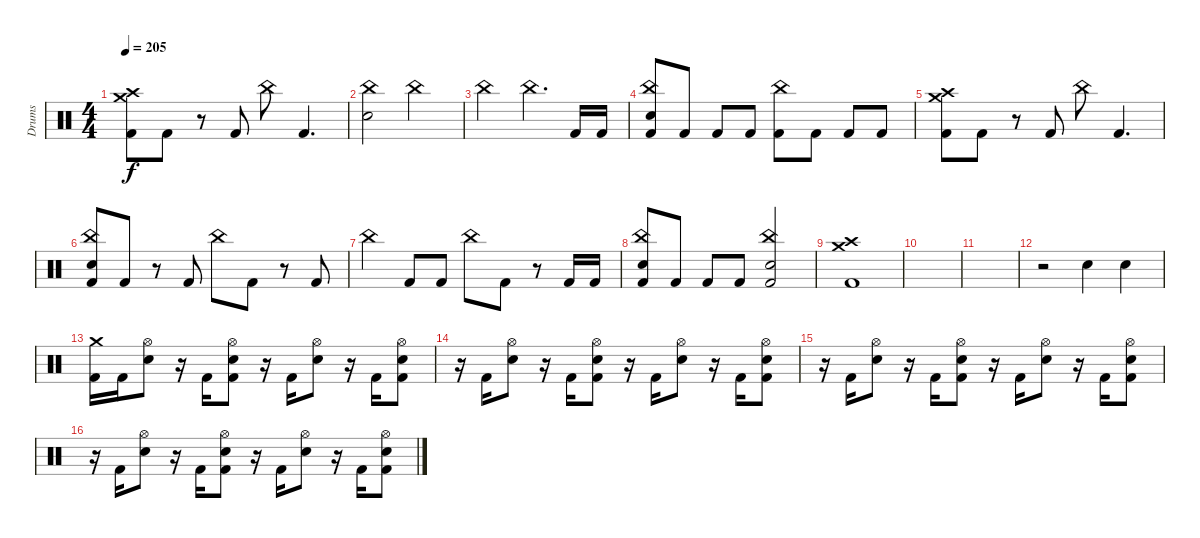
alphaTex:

\track ("Drums" "Drums") {instrument percussion}
\staff {score}
\articulation defaults
\ts (4 4)
\tempo 205
\clef neutral
\ks c
("Crash medium (hit)" "Crash high (hit)" "Kick (hit) 2").8{dy f} "Kick (hit) 2".8 r.8 "Kick (hit) 2".8 "China (hit)".8 "Kick (hit) 2".4{d} |
("China (hit)" "Electric Snare (hit)").2 "China (hit)".2 |
"China (hit)".2 "China (hit)".4{d} "Kick (hit) 2".16 "Kick (hit) 2".16 |
("China (hit)" "Electric Snare (hit)" "Kick (hit) 2").8 "Kick (hit) 2".8 "Kick (hit) 2".8 "Kick (hit) 2".8 ("China (hit)" "Kick (hit) 2").8 "Kick (hit) 2".8 "Kick (hit) 2".8 "Kick (hit) 2".8 |
("Crash medium (hit)" "Crash high (hit)" "Kick (hit) 2").8 "Kick (hit) 2".8 r.8 "Kick (hit) 2".8 "China (hit)".8 "Kick (hit) 2".4{d} |
("China (hit)" "Electric Snare (hit)" "Kick (hit) 2").8 "Kick (hit) 2".8 r.8 "Kick (hit) 2".8 "China (hit)".8 "Kick (hit) 2".8 r.8 "Kick (hit) 2".8 |
"China (hit)".4 "Kick (hit) 2".8 "Kick (hit) 2".8 "China (hit)".8 "Kick (hit) 2".8 r.8 "Kick (hit) 2".16 "Kick (hit) 2".16 |
("China (hit)" "Electric Snare (hit)" "Kick (hit) 2").8 "Kick (hit) 2".8 "Kick (hit) 2".8 "Kick (hit) 2".8 ("China (hit)" "Electric Snare (hit)" "Kick (hit) 2").2 |
("Crash medium (hit)" "Crash high (hit)" "Kick (hit) 2").1 |
|
|
r.2 "Electric Snare (hit)".4 "Electric Snare (hit)".4 |
("Crash medium (hit)" "Kick (hit) 2").16 "Kick (hit) 2".16 ("Hi-Hat (open)" "Electric Snare (hit)").8 r.16 "Kick (hit) 2".16 ("Hi-Hat (open)" "Electric Snare (hit)" "Kick (hit) 2").8 r.16 "Kick (hit) 2".16 ("Hi-Hat (open)" "Electric Snare (hit)").8 r.16 "Kick (hit) 2".16 ("Hi-Hat (open)" "Electric Snare (hit)" "Kick (hit) 2").8 |
r.16 "Kick (hit) 2".16 ("Hi-Hat (open)" "Electric Snare (hit)").8 r.16 "Kick (hit) 2".16 ("Hi-Hat (open)" "Electric Snare (hit)" "Kick (hit) 2").8 r.16 "Kick (hit) 2".16 ("Hi-Hat (open)" "Electric Snare (hit)").8 r.16 "Kick (hit) 2".16 ("Hi-Hat (open)" "Electric Snare (hit)" "Kick (hit) 2").8 |
r.16 "Kick (hit) 2".16 ("Hi-Hat (open)" "Electric Snare (hit)").8 r.16 "Kick (hit) 2".16 ("Hi-Hat (open)" "Electric Snare (hit)" "Kick (hit) 2").8 r.16 "Kick (hit) 2".16 ("Hi-Hat (open)" "Electric Snare (hit)").8 r.16 "Kick (hit) 2".16 ("Hi-Hat (open)" "Electric Snare (hit)" "Kick (hit) 2").8 |
r.16 "Kick (hit) 2".16 ("Hi-Hat (open)" "Electric Snare (hit)").8 r.16 "Kick (hit) 2".16 ("Hi-Hat (open)" "Electric Snare (hit)" "Kick (hit) 2").8 r.16 "Kick (hit) 2".16 ("Hi-Hat (open)" "Electric Snare (hit)").8 r.16 "Kick (hit) 2".16 ("Hi-Hat (open)" "Electric Snare (hit)" "Kick (hit) 2").8
